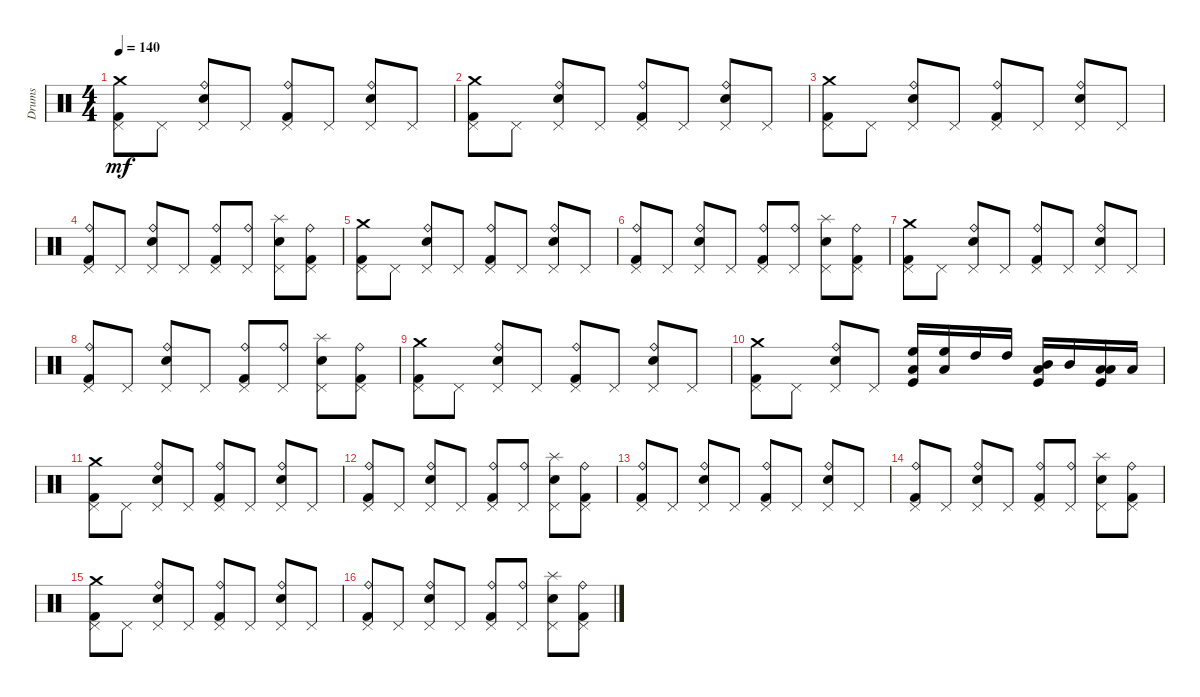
\track ("Drums" "Drums") {instrument percussion}
\staff {score}
\articulation defaults
\ts (4 4)
\tempo 140
\clef neutral
\ks c
("Crash medium (hit)" "Pedal Hi-Hat (hit)" "Kick (hit) 2").8{dy mf} "Pedal Hi-Hat (hit)".8 ("Ride (bell)" "Pedal Hi-Hat (hit)" "Snare (hit) 2").8 "Pedal Hi-Hat (hit)".8 ("Ride (bell)" "Pedal Hi-Hat (hit)" "Kick (hit) 2").8 "Pedal Hi-Hat (hit)".8 ("Ride (bell)" "Pedal Hi-Hat (hit)" "Snare (hit) 2").8 "Pedal Hi-Hat (hit)".8 |
("Crash medium (hit)" "Pedal Hi-Hat (hit)" "Kick (hit) 2").8 "Pedal Hi-Hat (hit)".8 ("Ride (bell)" "Pedal Hi-Hat (hit)" "Snare (hit) 2").8 "Pedal Hi-Hat (hit)".8 ("Ride (bell)" "Pedal Hi-Hat (hit)" "Kick (hit) 2").8 "Pedal Hi-Hat (hit)".8 ("Ride (bell)" "Pedal Hi-Hat (hit)" "Snare (hit) 2").8 "Pedal Hi-Hat (hit)".8 |
("Crash medium (hit)" "Pedal Hi-Hat (hit)" "Kick (hit) 2").8 "Pedal Hi-Hat (hit)".8 ("Ride (bell)" "Pedal Hi-Hat (hit)" "Snare (hit) 2").8 "Pedal Hi-Hat (hit)".8 ("Ride (bell)" "Pedal Hi-Hat (hit)" "Kick (hit) 2").8 "Pedal Hi-Hat (hit)".8 ("Ride (bell)" "Pedal Hi-Hat (hit)" "Snare (hit) 2").8 "Pedal Hi-Hat (hit)".8 |
("Ride (bell)" "Pedal Hi-Hat (hit)" "Kick (hit) 2").8 "Pedal Hi-Hat (hit)".8 ("Ride (bell)" "Pedal Hi-Hat (hit)" "Snare (hit) 2").8 "Pedal Hi-Hat (hit)".8 ("Ride (bell)" "Pedal Hi-Hat (hit)" "Kick (hit) 2").8 ("Ride (bell)" "Pedal Hi-Hat (hit)").8 ("Splash (hit)" "Pedal Hi-Hat (hit)" "Snare (hit) 2").8 ("Ride (bell)" "Pedal Hi-Hat (hit)" "Kick (hit) 2").8 |
("Crash medium (hit)" "Pedal Hi-Hat (hit)" "Kick (hit) 2").8 "Pedal Hi-Hat (hit)".8 ("Ride (bell)" "Pedal Hi-Hat (hit)" "Snare (hit) 2").8 "Pedal Hi-Hat (hit)".8 ("Ride (bell)" "Pedal Hi-Hat (hit)" "Kick (hit) 2").8 "Pedal Hi-Hat (hit)".8 ("Ride (bell)" "Pedal Hi-Hat (hit)" "Snare (hit) 2").8 "Pedal Hi-Hat (hit)".8 |
("Ride (bell)" "Pedal Hi-Hat (hit)" "Kick (hit) 2").8 "Pedal Hi-Hat (hit)".8 ("Ride (bell)" "Pedal Hi-Hat (hit)" "Snare (hit) 2").8 "Pedal Hi-Hat (hit)".8 ("Ride (bell)" "Pedal Hi-Hat (hit)" "Kick (hit) 2").8 ("Ride (bell)" "Pedal Hi-Hat (hit)").8 ("Splash (hit)" "Pedal Hi-Hat (hit)" "Snare (hit) 2").8 ("Ride (bell)" "Pedal Hi-Hat (hit)" "Kick (hit) 2").8 |
("Crash medium (hit)" "Pedal Hi-Hat (hit)" "Kick (hit) 2").8 "Pedal Hi-Hat (hit)".8 ("Ride (bell)" "Pedal Hi-Hat (hit)" "Snare (hit) 2").8 "Pedal Hi-Hat (hit)".8 ("Ride (bell)" "Pedal Hi-Hat (hit)" "Kick (hit) 2").8 "Pedal Hi-Hat (hit)".8 ("Ride (bell)" "Pedal Hi-Hat (hit)" "Snare (hit) 2").8 "Pedal Hi-Hat (hit)".8 |
("Ride (bell)" "Pedal Hi-Hat (hit)" "Kick (hit) 2").8 "Pedal Hi-Hat (hit)".8 ("Ride (bell)" "Pedal Hi-Hat (hit)" "Snare (hit) 2").8 "Pedal Hi-Hat (hit)".8 ("Ride (bell)" "Pedal Hi-Hat (hit)" "Kick (hit) 2").8 ("Ride (bell)" "Pedal Hi-Hat (hit)").8 ("Splash (hit)" "Pedal Hi-Hat (hit)" "Snare (hit) 2").8 ("Ride (bell)" "Pedal Hi-Hat (hit)" "Kick (hit) 2").8 |
("Crash medium (hit)" "Pedal Hi-Hat (hit)" "Kick (hit) 2").8 "Pedal Hi-Hat (hit)".8 ("Ride (bell)" "Pedal Hi-Hat (hit)" "Snare (hit) 2").8 "Pedal Hi-Hat (hit)".8 ("Ride (bell)" "Pedal Hi-Hat (hit)" "Kick (hit) 2").8 "Pedal Hi-Hat (hit)".8 ("Ride (bell)" "Pedal Hi-Hat (hit)" "Snare (hit) 2").8 "Pedal Hi-Hat (hit)".8 |
("Crash medium (hit)" "Pedal Hi-Hat (hit)" "Kick (hit) 2").8 "Pedal Hi-Hat (hit)".8 ("Ride (bell)" "Pedal Hi-Hat (hit)" "Snare (hit) 2").8 "Pedal Hi-Hat (hit)".8 ("High Floor Tom (hit)" "Low Floor Tom (hit)" "Kick (hit)").16 ("High Floor Tom (hit)" "Low Floor Tom (hit)").16 "High Tom (hit)".16 "High Tom (hit)".16 ("Mid Tom (hit)" "Low Floor Tom (hit)" "Kick (hit)").16 "Mid Tom (hit)".16 ("Low Tom (hit)" "Low Floor Tom (hit)" "Kick (hit)").16 "Low Tom (hit)".16 |
("Crash medium (hit)" "Pedal Hi-Hat (hit)" "Kick (hit) 2").8 "Pedal Hi-Hat (hit)".8 ("Ride (bell)" "Pedal Hi-Hat (hit)" "Snare (hit) 2").8 "Pedal Hi-Hat (hit)".8 ("Ride (bell)" "Pedal Hi-Hat (hit)" "Kick (hit) 2").8 "Pedal Hi-Hat (hit)".8 ("Ride (bell)" "Pedal Hi-Hat (hit)" "Snare (hit) 2").8 "Pedal Hi-Hat (hit)".8 |
("Ride (bell)" "Pedal Hi-Hat (hit)" "Kick (hit) 2").8 "Pedal Hi-Hat (hit)".8 ("Ride (bell)" "Pedal Hi-Hat (hit)" "Snare (hit) 2").8 "Pedal Hi-Hat (hit)".8 ("Ride (bell)" "Pedal Hi-Hat (hit)" "Kick (hit) 2").8 ("Ride (bell)" "Pedal Hi-Hat (hit)").8 ("Splash (hit)" "Pedal Hi-Hat (hit)" "Snare (hit) 2").8 ("Ride (bell)" "Pedal Hi-Hat (hit)" "Kick (hit) 2").8 |
("Ride (bell)" "Pedal Hi-Hat (hit)" "Kick (hit) 2").8 "Pedal Hi-Hat (hit)".8 ("Ride (bell)" "Pedal Hi-Hat (hit)" "Snare (hit) 2").8 "Pedal Hi-Hat (hit)".8 ("Ride (bell)" "Pedal Hi-Hat (hit)" "Kick (hit) 2").8 "Pedal Hi-Hat (hit)".8 ("Ride (bell)" "Pedal Hi-Hat (hit)" "Snare (hit) 2").8 "Pedal Hi-Hat (hit)".8 |
("Ride (bell)" "Pedal Hi-Hat (hit)" "Kick (hit) 2").8 "Pedal Hi-Hat (hit)".8 ("Ride (bell)" "Pedal Hi-Hat (hit)" "Snare (hit) 2").8 "Pedal Hi-Hat (hit)".8 ("Ride (bell)" "Pedal Hi-Hat (hit)" "Kick (hit) 2").8 ("Ride (bell)" "Pedal Hi-Hat (hit)").8 ("Splash (hit)" "Pedal Hi-Hat (hit)" "Snare (hit) 2").8 ("Ride (bell)" "Pedal Hi-Hat (hit)" "Kick (hit) 2").8 |
("Crash medium (hit)" "Pedal Hi-Hat (hit)" "Kick (hit) 2").8 "Pedal Hi-Hat (hit)".8 ("Ride (bell)" "Pedal Hi-Hat (hit)" "Snare (hit) 2").8 "Pedal Hi-Hat (hit)".8 ("Ride (bell)" "Pedal Hi-Hat (hit)" "Kick (hit) 2").8 "Pedal Hi-Hat (hit)".8 ("Ride (bell)" "Pedal Hi-Hat (hit)" "Snare (hit) 2").8 "Pedal Hi-Hat (hit)".8 |
("Ride (bell)" "Pedal Hi-Hat (hit)" "Kick (hit) 2").8 "Pedal Hi-Hat (hit)".8 ("Ride (bell)" "Pedal Hi-Hat (hit)" "Snare (hit) 2").8 "Pedal Hi-Hat (hit)".8 ("Ride (bell)" "Pedal Hi-Hat (hit)" "Kick (hit) 2").8 ("Ride (bell)" "Pedal Hi-Hat (hit)").8 ("Splash (hit)" "Pedal Hi-Hat (hit)" "Snare (hit) 2").8 ("Ride (bell)" "Pedal Hi-Hat (hit)" "Kick (hit) 2").8
